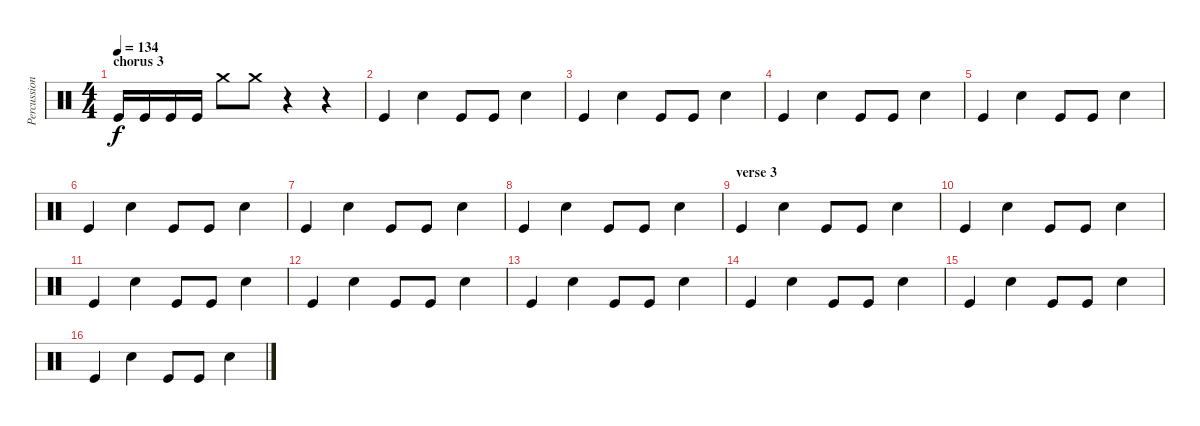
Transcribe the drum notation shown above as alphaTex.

\track ("Percussion" "Percussion") {instrument percussion}
\staff {score}
\articulation defaults
\ts (4 4)
\section ("" "chorus 3")
\tempo 134
\clef neutral
\ks c "Kick (hit)".16{dy f} "Kick (hit)".16 "Kick (hit)".16 "Kick (hit)".16 "Crash medium (hit)".8 "Crash medium (hit)".8
r.4 r.4 |
"Kick (hit)".4 "Snare (hit) 2".4 "Kick (hit)".8 "Kick (hit)".8 "Snare (hit) 2".4 |
"Kick (hit)".4 "Snare (hit) 2".4 "Kick (hit)".8 "Kick (hit)".8 "Snare (hit) 2".4 |
"Kick (hit)".4 "Snare (hit) 2".4 "Kick (hit)".8 "Kick (hit)".8 "Snare (hit) 2".4 |
"Kick (hit)".4 "Snare (hit) 2".4 "Kick (hit)".8 "Kick (hit)".8 "Snare (hit) 2".4 |
"Kick (hit)".4 "Snare (hit) 2".4 "Kick (hit)".8 "Kick (hit)".8 "Snare (hit) 2".4 |
"Kick (hit)".4 "Snare (hit) 2".4 "Kick (hit)".8 "Kick (hit)".8 "Snare (hit) 2".4 |
"Kick (hit)".4 "Snare (hit) 2".4 "Kick (hit)".8 "Kick (hit)".8 "Snare (hit) 2".4 |
\section ("" "verse 3")
"Kick (hit)".4 "Snare (hit) 2".4 "Kick (hit)".8 "Kick (hit)".8 "Snare (hit) 2".4 |
"Kick (hit)".4 "Snare (hit) 2".4 "Kick (hit)".8 "Kick (hit)".8 "Snare (hit) 2".4 |
"Kick (hit)".4 "Snare (hit) 2".4 "Kick (hit)".8 "Kick (hit)".8 "Snare (hit) 2".4 |
"Kick (hit)".4 "Snare (hit) 2".4 "Kick (hit)".8 "Kick (hit)".8 "Snare (hit) 2".4 |
"Kick (hit)".4 "Snare (hit) 2".4 "Kick (hit)".8 "Kick (hit)".8 "Snare (hit) 2".4 |
"Kick (hit)".4 "Snare (hit) 2".4 "Kick (hit)".8 "Kick (hit)".8 "Snare (hit) 2".4 |
"Kick (hit)".4 "Snare (hit) 2".4 "Kick (hit)".8 "Kick (hit)".8 "Snare (hit) 2".4 |
"Kick (hit)".4 "Snare (hit) 2".4 "Kick (hit)".8 "Kick (hit)".8 "Snare (hit) 2".4
